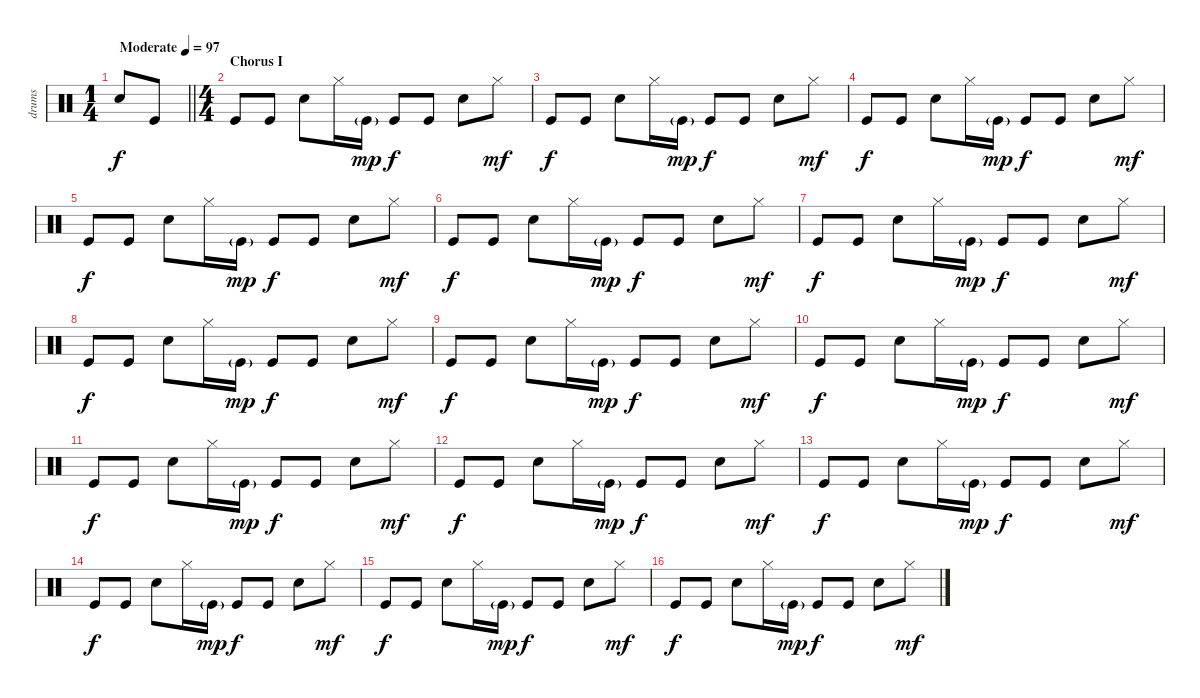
\track ("drums" "drums") {instrument percussion}
\staff {score}
\articulation defaults
\ts (1 4)
\tempo (97 "Moderate")
\clef neutral
\barLineRight lightlight
\ks c "Snare (hit) 2".8{dy f} "Kick (hit)".8
|
\ts (4 4)
\section ("" "Chorus I")
"Kick (hit)".8 "Kick (hit)".8 "Electric Snare (hit)".8 "Hi-Hat (closed)".16 "Kick (hit)"{g}.16{dy mp} "Kick (hit)".8{dy f} "Kick (hit)".8 "Electric Snare (hit)".8 "Hi-Hat (closed)".8{dy mf} |
"Kick (hit)".8{dy f} "Kick (hit)".8 "Electric Snare (hit)".8 "Hi-Hat (closed)".16 "Kick (hit)"{g}.16{dy mp} "Kick (hit)".8{dy f} "Kick (hit)".8 "Electric Snare (hit)".8 "Hi-Hat (closed)".8{dy mf} |
"Kick (hit)".8{dy f} "Kick (hit)".8 "Electric Snare (hit)".8 "Hi-Hat (closed)".16 "Kick (hit)"{g}.16{dy mp} "Kick (hit)".8{dy f} "Kick (hit)".8 "Electric Snare (hit)".8 "Hi-Hat (closed)".8{dy mf} |
"Kick (hit)".8{dy f} "Kick (hit)".8 "Electric Snare (hit)".8 "Hi-Hat (closed)".16 "Kick (hit)"{g}.16{dy mp} "Kick (hit)".8{dy f} "Kick (hit)".8 "Electric Snare (hit)".8 "Hi-Hat (closed)".8{dy mf} |
"Kick (hit)".8{dy f} "Kick (hit)".8 "Electric Snare (hit)".8 "Hi-Hat (closed)".16 "Kick (hit)"{g}.16{dy mp} "Kick (hit)".8{dy f} "Kick (hit)".8 "Electric Snare (hit)".8 "Hi-Hat (closed)".8{dy mf} |
"Kick (hit)".8{dy f} "Kick (hit)".8 "Electric Snare (hit)".8 "Hi-Hat (closed)".16 "Kick (hit)"{g}.16{dy mp} "Kick (hit)".8{dy f} "Kick (hit)".8 "Electric Snare (hit)".8 "Hi-Hat (closed)".8{dy mf} |
"Kick (hit)".8{dy f} "Kick (hit)".8 "Electric Snare (hit)".8 "Hi-Hat (closed)".16 "Kick (hit)"{g}.16{dy mp} "Kick (hit)".8{dy f} "Kick (hit)".8 "Electric Snare (hit)".8 "Hi-Hat (closed)".8{dy mf} |
"Kick (hit)".8{dy f} "Kick (hit)".8 "Electric Snare (hit)".8 "Hi-Hat (closed)".16 "Kick (hit)"{g}.16{dy mp} "Kick (hit)".8{dy f} "Kick (hit)".8 "Electric Snare (hit)".8 "Hi-Hat (closed)".8{dy mf} |
"Kick (hit)".8{dy f} "Kick (hit)".8 "Electric Snare (hit)".8 "Hi-Hat (closed)".16 "Kick (hit)"{g}.16{dy mp} "Kick (hit)".8{dy f} "Kick (hit)".8 "Electric Snare (hit)".8 "Hi-Hat (closed)".8{dy mf} |
"Kick (hit)".8{dy f} "Kick (hit)".8 "Electric Snare (hit)".8 "Hi-Hat (closed)".16 "Kick (hit)"{g}.16{dy mp} "Kick (hit)".8{dy f} "Kick (hit)".8 "Electric Snare (hit)".8 "Hi-Hat (closed)".8{dy mf} |
"Kick (hit)".8{dy f} "Kick (hit)".8 "Electric Snare (hit)".8 "Hi-Hat (closed)".16 "Kick (hit)"{g}.16{dy mp} "Kick (hit)".8{dy f} "Kick (hit)".8 "Electric Snare (hit)".8 "Hi-Hat (closed)".8{dy mf} |
"Kick (hit)".8{dy f} "Kick (hit)".8 "Electric Snare (hit)".8 "Hi-Hat (closed)".16 "Kick (hit)"{g}.16{dy mp} "Kick (hit)".8{dy f} "Kick (hit)".8 "Electric Snare (hit)".8 "Hi-Hat (closed)".8{dy mf} |
"Kick (hit)".8{dy f} "Kick (hit)".8 "Electric Snare (hit)".8 "Hi-Hat (closed)".16 "Kick (hit)"{g}.16{dy mp} "Kick (hit)".8{dy f} "Kick (hit)".8 "Electric Snare (hit)".8 "Hi-Hat (closed)".8{dy mf} |
"Kick (hit)".8{dy f} "Kick (hit)".8 "Electric Snare (hit)".8 "Hi-Hat (closed)".16 "Kick (hit)"{g}.16{dy mp} "Kick (hit)".8{dy f} "Kick (hit)".8 "Electric Snare (hit)".8 "Hi-Hat (closed)".8{dy mf} |
"Kick (hit)".8{dy f} "Kick (hit)".8 "Electric Snare (hit)".8 "Hi-Hat (closed)".16 "Kick (hit)"{g}.16{dy mp} "Kick (hit)".8{dy f} "Kick (hit)".8 "Electric Snare (hit)".8 "Hi-Hat (closed)".8{dy mf}
